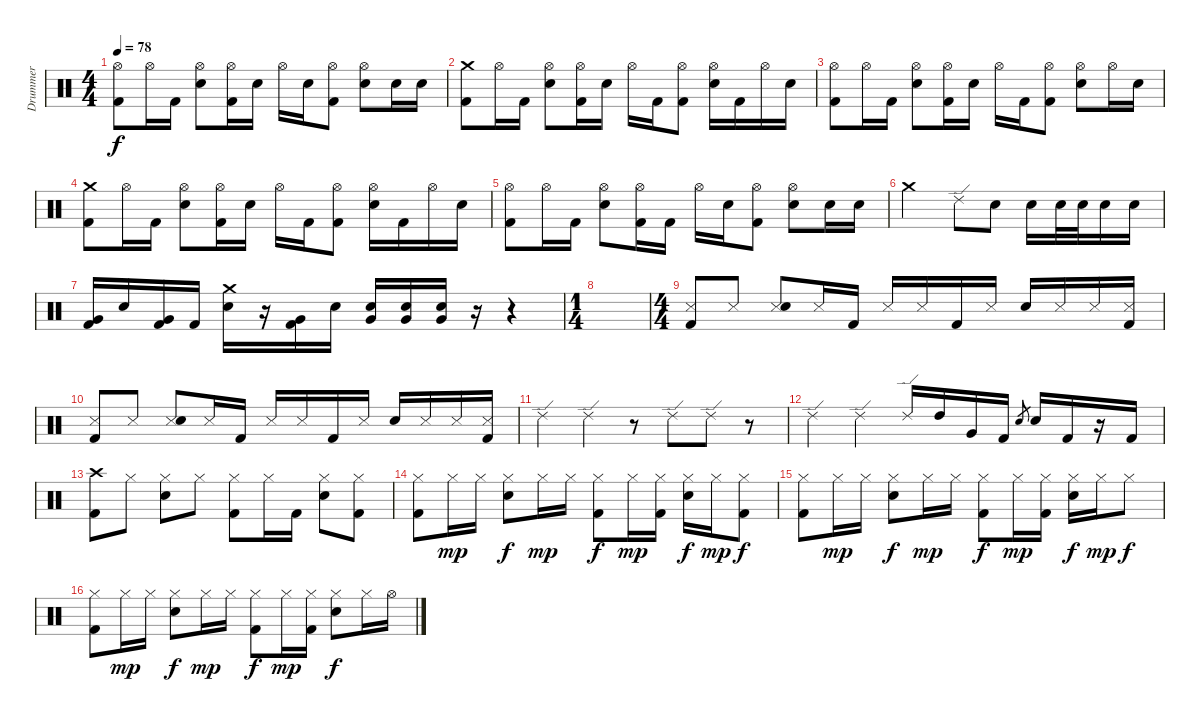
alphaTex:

\track ("Drummer" "Drummer") {instrument percussion}
\staff {score}
\articulation defaults
\ts (4 4)
\tempo 78
\clef neutral
\ks c
("Hi-Hat (open)" "Kick (hit) 2").8{dy f} "Hi-Hat (open)".16 "Kick (hit) 2".16 ("Hi-Hat (open)" "Electric Snare (hit)").8 ("Hi-Hat (open)" "Kick (hit) 2").16 "Electric Snare (hit)".16 "Hi-Hat (open)".16 "Electric Snare (hit)".16 ("Hi-Hat (open)" "Kick (hit) 2").8 ("Hi-Hat (open)" "Electric Snare (hit)").8 "Electric Snare (hit)".16 "Electric Snare (hit)".16 |
("Crash medium (hit)" "Kick (hit) 2").8 "Hi-Hat (open)".16 "Kick (hit) 2".16 ("Hi-Hat (open)" "Electric Snare (hit)").8 ("Hi-Hat (open)" "Kick (hit) 2").16 "Electric Snare (hit)".16 "Hi-Hat (open)".16 "Kick (hit) 2".16 ("Hi-Hat (open)" "Kick (hit) 2").8 ("Hi-Hat (open)" "Electric Snare (hit)").16 "Kick (hit) 2".16 "Hi-Hat (open)".16 "Electric Snare (hit)".16 |
("Hi-Hat (open)" "Kick (hit) 2").8 "Hi-Hat (open)".16 "Kick (hit) 2".16 ("Hi-Hat (open)" "Electric Snare (hit)").8 ("Hi-Hat (open)" "Kick (hit) 2").16 "Electric Snare (hit)".16 "Hi-Hat (open)".16 "Kick (hit) 2".16 ("Hi-Hat (open)" "Kick (hit) 2").8 ("Hi-Hat (open)" "Electric Snare (hit)").8 "Hi-Hat (open)".16 "Electric Snare (hit)".16 |
("Crash medium (hit)" "Kick (hit) 2").8 "Hi-Hat (open)".16 "Kick (hit) 2".16 ("Hi-Hat (open)" "Electric Snare (hit)").8 ("Hi-Hat (open)" "Kick (hit) 2").16 "Electric Snare (hit)".16 "Hi-Hat (open)".16 "Kick (hit) 2".16 ("Hi-Hat (open)" "Kick (hit) 2").8 ("Hi-Hat (open)" "Electric Snare (hit)").16 "Kick (hit) 2".16 "Hi-Hat (open)".16 "Electric Snare (hit)".16 |
("Hi-Hat (open)" "Kick (hit) 2").8 "Hi-Hat (open)".16 "Kick (hit) 2".16 ("Hi-Hat (open)" "Electric Snare (hit)").8 ("Hi-Hat (open)" "Kick (hit) 2").16 "Kick (hit) 2".16 "Hi-Hat (open)".16 "Electric Snare (hit)".16 ("Hi-Hat (open)" "Kick (hit) 2").8 ("Hi-Hat (open)" "Electric Snare (hit)").8 "Electric Snare (hit)".16 "Electric Snare (hit)".16 |
"Crash medium (hit)".2 "Ride (edge) 2".8 "Electric Snare (hit)".8 "Electric Snare (hit)".16 "Electric Snare (hit)".32 "Electric Snare (hit)".32 "Electric Snare (hit)".16 "Electric Snare (hit)".16 |
("Very Low Tom (hit)" "Kick (hit) 2").16 "Electric Snare (hit)".16 ("Very Low Tom (hit)" "Kick (hit) 2").16 "Kick (hit) 2".16 ("Crash medium (hit)" "Electric Snare (hit)").16 r.16 ("Very Low Tom (hit)" "Kick (hit) 2").16 "Electric Snare (hit)".16 ("Very Low Tom (hit)" "Electric Snare (hit)").16 ("Very Low Tom (hit)" "Electric Snare (hit)").16 ("Very Low Tom (hit)" "Electric Snare (hit)").16 r.16 r.4 |
\ts (1 4)
|
\ts (4 4)
("Snare (side stick) 3" "Kick (hit) 2").8 "Snare (side stick) 3".8 ("Snare (side stick) 3" "Electric Snare (hit)").8 "Snare (side stick) 3".16 "Kick (hit) 2".16 "Snare (side stick) 3".16 "Snare (side stick) 3".16 "Kick (hit) 2".16 "Snare (side stick) 3".16 "Electric Snare (hit)".16 "Snare (side stick) 3".16 "Snare (side stick) 3".16 ("Snare (side stick) 3" "Kick (hit) 2").16 |
("Snare (side stick) 3" "Kick (hit) 2").8 "Snare (side stick) 3".8 ("Snare (side stick) 3" "Electric Snare (hit)").8 "Snare (side stick) 3".16 "Kick (hit) 2".16 "Snare (side stick) 3".16 "Snare (side stick) 3".16 "Kick (hit) 2".16 "Snare (side stick) 3".16 "Electric Snare (hit)".16 "Snare (side stick) 3".16 "Snare (side stick) 3".16 ("Snare (side stick) 3" "Kick (hit) 2").16 |
"Ride (edge) 2".4 "Ride (edge) 2".4 r.8 "Ride (edge) 2".8{beam merge} "Ride (edge) 2".8 r.8 |
"Ride (edge) 2".4 "Ride (edge) 2".4 "Ride (edge) 2".16 "High Tom (hit)".16 "Very Low Tom (hit)".16 "Kick (hit) 2".16 "Electric Snare (hit)".8{gr beam merge} "Electric Snare (hit)".16 "Kick (hit) 2".16 r.16 "Kick (hit) 2".16 |
("Crash high (hit)" "Kick (hit) 2").8 "Hi-Hat (closed)".8 ("Hi-Hat (closed)" "Electric Snare (hit)").8 "Hi-Hat (closed)".8 ("Hi-Hat (closed)" "Kick (hit) 2").8 "Hi-Hat (closed)".16 "Kick (hit) 2".16 ("Hi-Hat (closed)" "Electric Snare (hit)").8 ("Hi-Hat (closed)" "Kick (hit) 2").8 |
("Hi-Hat (closed)" "Kick (hit) 2").8 "Hi-Hat (closed)".16{dy mp} "Hi-Hat (closed)".16 ("Hi-Hat (closed)" "Electric Snare (hit)").8{dy f} "Hi-Hat (closed)".16{dy mp} "Hi-Hat (closed)".16 ("Hi-Hat (closed)" "Kick (hit) 2").8{dy f} "Hi-Hat (closed)".16{dy mp} ("Hi-Hat (closed)" "Kick (hit) 2").16 ("Hi-Hat (closed)" "Electric Snare (hit)").16{dy f} "Hi-Hat (closed)".16{dy mp} ("Hi-Hat (closed)" "Kick (hit) 2").8{dy f} |
("Hi-Hat (closed)" "Kick (hit) 2").8 "Hi-Hat (closed)".16{dy mp} "Hi-Hat (closed)".16 ("Hi-Hat (closed)" "Electric Snare (hit)").8{dy f} "Hi-Hat (closed)".16{dy mp} "Hi-Hat (closed)".16 ("Hi-Hat (closed)" "Kick (hit) 2").8{dy f} "Hi-Hat (closed)".16{dy mp} ("Hi-Hat (closed)" "Kick (hit) 2").16 ("Hi-Hat (closed)" "Electric Snare (hit)").16{dy f} "Hi-Hat (closed)".16{dy mp} "Hi-Hat (closed)".8{dy f} |
("Hi-Hat (closed)" "Kick (hit) 2").8 "Hi-Hat (closed)".16{dy mp} "Hi-Hat (closed)".16 ("Hi-Hat (closed)" "Electric Snare (hit)").8{dy f} "Hi-Hat (closed)".16{dy mp} "Hi-Hat (closed)".16 ("Hi-Hat (closed)" "Kick (hit) 2").8{dy f} "Hi-Hat (closed)".16{dy mp} ("Hi-Hat (closed)" "Kick (hit) 2").16 ("Hi-Hat (closed)" "Electric Snare (hit)").8{dy f} "Hi-Hat (closed)".16 "Hi-Hat (open)".16
